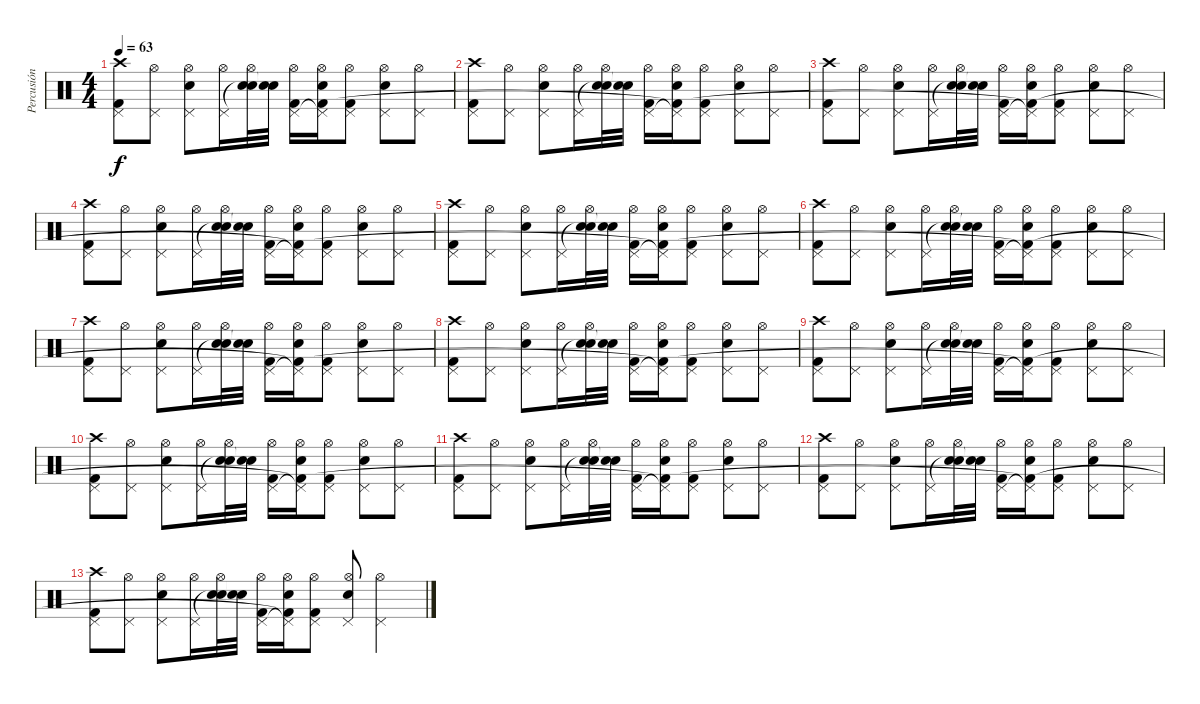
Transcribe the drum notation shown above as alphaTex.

\track ("Percusión" "Percusión") {instrument percussion}
\staff {score}
\articulation defaults
\ts (4 4)
\tempo 63
\clef neutral
\ks c
("Pedal Hi-Hat (hit)" "Crash high (hit)" "Kick (hit) 2").8{dy f} ("Pedal Hi-Hat (hit)" "Hi-Hat (open)").8 ("Pedal Hi-Hat (hit)" "Electric Snare (hit)" "Hi-Hat (open)").8 ("Pedal Hi-Hat (hit)" "Hi-Hat (open)").16 ("Snare (hit)"{t} "Electric Snare (hit)" "Hi-Hat (open)").32 ("Snare (hit)"{t} "Electric Snare (hit)").32 ("Pedal Hi-Hat (hit)" "Hi-Hat (open)" "Kick (hit) 2").16 ("Pedal Hi-Hat (hit)"{t} "Electric Snare (hit)" "Hi-Hat (open)" "Kick (hit) 2"{t}).16 ("Pedal Hi-Hat (hit)" "Hi-Hat (open)" "Kick (hit) 2").8 ("Pedal Hi-Hat (hit)" "Electric Snare (hit)" "Hi-Hat (open)").8 ("Pedal Hi-Hat (hit)" "Hi-Hat (open)").8 |
("Pedal Hi-Hat (hit)" "Crash high (hit)" "Kick (hit) 2").8 ("Pedal Hi-Hat (hit)" "Hi-Hat (open)").8 ("Pedal Hi-Hat (hit)" "Electric Snare (hit)" "Hi-Hat (open)").8 ("Pedal Hi-Hat (hit)" "Hi-Hat (open)").16 ("Snare (hit)"{t} "Electric Snare (hit)" "Hi-Hat (open)").32 ("Snare (hit)"{t} "Electric Snare (hit)").32 ("Pedal Hi-Hat (hit)" "Hi-Hat (open)" "Kick (hit) 2").16 ("Pedal Hi-Hat (hit)"{t} "Electric Snare (hit)" "Hi-Hat (open)" "Kick (hit) 2"{t}).16 ("Pedal Hi-Hat (hit)" "Hi-Hat (open)" "Kick (hit) 2").8 ("Pedal Hi-Hat (hit)" "Electric Snare (hit)" "Hi-Hat (open)").8 ("Pedal Hi-Hat (hit)" "Hi-Hat (open)").8 |
("Pedal Hi-Hat (hit)" "Crash high (hit)" "Kick (hit) 2").8 ("Pedal Hi-Hat (hit)" "Hi-Hat (open)").8 ("Pedal Hi-Hat (hit)" "Electric Snare (hit)" "Hi-Hat (open)").8 ("Pedal Hi-Hat (hit)" "Hi-Hat (open)").16 ("Snare (hit)"{t} "Electric Snare (hit)" "Hi-Hat (open)").32 ("Snare (hit)"{t} "Electric Snare (hit)").32 ("Pedal Hi-Hat (hit)" "Hi-Hat (open)" "Kick (hit) 2").16 ("Pedal Hi-Hat (hit)"{t} "Electric Snare (hit)" "Hi-Hat (open)" "Kick (hit) 2"{t}).16 ("Pedal Hi-Hat (hit)" "Hi-Hat (open)" "Kick (hit) 2").8 ("Pedal Hi-Hat (hit)" "Electric Snare (hit)" "Hi-Hat (open)").8 ("Pedal Hi-Hat (hit)" "Hi-Hat (open)").8 |
("Pedal Hi-Hat (hit)" "Crash high (hit)" "Kick (hit) 2").8 ("Pedal Hi-Hat (hit)" "Hi-Hat (open)").8 ("Pedal Hi-Hat (hit)" "Electric Snare (hit)" "Hi-Hat (open)").8 ("Pedal Hi-Hat (hit)" "Hi-Hat (open)").16 ("Snare (hit)"{t} "Electric Snare (hit)" "Hi-Hat (open)").32 ("Snare (hit)"{t} "Electric Snare (hit)").32 ("Pedal Hi-Hat (hit)" "Hi-Hat (open)" "Kick (hit) 2").16 ("Pedal Hi-Hat (hit)"{t} "Electric Snare (hit)" "Hi-Hat (open)" "Kick (hit) 2"{t}).16 ("Pedal Hi-Hat (hit)" "Hi-Hat (open)" "Kick (hit) 2").8 ("Pedal Hi-Hat (hit)" "Electric Snare (hit)" "Hi-Hat (open)").8 ("Pedal Hi-Hat (hit)" "Hi-Hat (open)").8 |
("Pedal Hi-Hat (hit)" "Crash high (hit)" "Kick (hit) 2").8 ("Pedal Hi-Hat (hit)" "Hi-Hat (open)").8 ("Pedal Hi-Hat (hit)" "Electric Snare (hit)" "Hi-Hat (open)").8 ("Pedal Hi-Hat (hit)" "Hi-Hat (open)").16 ("Snare (hit)"{t} "Electric Snare (hit)" "Hi-Hat (open)").32 ("Snare (hit)"{t} "Electric Snare (hit)").32 ("Pedal Hi-Hat (hit)" "Hi-Hat (open)" "Kick (hit) 2").16 ("Pedal Hi-Hat (hit)"{t} "Electric Snare (hit)" "Hi-Hat (open)" "Kick (hit) 2"{t}).16 ("Pedal Hi-Hat (hit)" "Hi-Hat (open)" "Kick (hit) 2").8 ("Pedal Hi-Hat (hit)" "Electric Snare (hit)" "Hi-Hat (open)").8 ("Pedal Hi-Hat (hit)" "Hi-Hat (open)").8 |
("Pedal Hi-Hat (hit)" "Crash high (hit)" "Kick (hit) 2").8 ("Pedal Hi-Hat (hit)" "Hi-Hat (open)").8 ("Pedal Hi-Hat (hit)" "Electric Snare (hit)" "Hi-Hat (open)").8 ("Pedal Hi-Hat (hit)" "Hi-Hat (open)").16 ("Snare (hit)"{t} "Electric Snare (hit)" "Hi-Hat (open)").32 ("Snare (hit)"{t} "Electric Snare (hit)").32 ("Pedal Hi-Hat (hit)" "Hi-Hat (open)" "Kick (hit) 2").16 ("Pedal Hi-Hat (hit)"{t} "Electric Snare (hit)" "Hi-Hat (open)" "Kick (hit) 2"{t}).16 ("Pedal Hi-Hat (hit)" "Hi-Hat (open)" "Kick (hit) 2").8 ("Pedal Hi-Hat (hit)" "Electric Snare (hit)" "Hi-Hat (open)").8 ("Pedal Hi-Hat (hit)" "Hi-Hat (open)").8 |
("Pedal Hi-Hat (hit)" "Crash high (hit)" "Kick (hit) 2").8 ("Pedal Hi-Hat (hit)" "Hi-Hat (open)").8 ("Pedal Hi-Hat (hit)" "Electric Snare (hit)" "Hi-Hat (open)").8 ("Pedal Hi-Hat (hit)" "Hi-Hat (open)").16 ("Snare (hit)"{t} "Electric Snare (hit)" "Hi-Hat (open)").32 ("Snare (hit)"{t} "Electric Snare (hit)").32 ("Pedal Hi-Hat (hit)" "Hi-Hat (open)" "Kick (hit) 2").16 ("Pedal Hi-Hat (hit)"{t} "Electric Snare (hit)" "Hi-Hat (open)" "Kick (hit) 2"{t}).16 ("Pedal Hi-Hat (hit)" "Hi-Hat (open)" "Kick (hit) 2").8 ("Pedal Hi-Hat (hit)" "Electric Snare (hit)" "Hi-Hat (open)").8 ("Pedal Hi-Hat (hit)" "Hi-Hat (open)").8 |
("Pedal Hi-Hat (hit)" "Crash high (hit)" "Kick (hit) 2").8 ("Pedal Hi-Hat (hit)" "Hi-Hat (open)").8 ("Pedal Hi-Hat (hit)" "Electric Snare (hit)" "Hi-Hat (open)").8 ("Pedal Hi-Hat (hit)" "Hi-Hat (open)").16 ("Snare (hit)"{t} "Electric Snare (hit)" "Hi-Hat (open)").32 ("Snare (hit)"{t} "Electric Snare (hit)").32 ("Pedal Hi-Hat (hit)" "Hi-Hat (open)" "Kick (hit) 2").16 ("Pedal Hi-Hat (hit)"{t} "Electric Snare (hit)" "Hi-Hat (open)" "Kick (hit) 2"{t}).16 ("Pedal Hi-Hat (hit)" "Hi-Hat (open)" "Kick (hit) 2").8 ("Pedal Hi-Hat (hit)" "Electric Snare (hit)" "Hi-Hat (open)").8 ("Pedal Hi-Hat (hit)" "Hi-Hat (open)").8 |
("Pedal Hi-Hat (hit)" "Crash high (hit)" "Kick (hit) 2").8 ("Pedal Hi-Hat (hit)" "Hi-Hat (open)").8 ("Pedal Hi-Hat (hit)" "Electric Snare (hit)" "Hi-Hat (open)").8 ("Pedal Hi-Hat (hit)" "Hi-Hat (open)").16 ("Snare (hit)"{t} "Electric Snare (hit)" "Hi-Hat (open)").32 ("Snare (hit)"{t} "Electric Snare (hit)").32 ("Pedal Hi-Hat (hit)" "Hi-Hat (open)" "Kick (hit) 2").16 ("Pedal Hi-Hat (hit)"{t} "Electric Snare (hit)" "Hi-Hat (open)" "Kick (hit) 2"{t}).16 ("Pedal Hi-Hat (hit)" "Hi-Hat (open)" "Kick (hit) 2").8 ("Pedal Hi-Hat (hit)" "Electric Snare (hit)" "Hi-Hat (open)").8 ("Pedal Hi-Hat (hit)" "Hi-Hat (open)").8 |
("Pedal Hi-Hat (hit)" "Crash high (hit)" "Kick (hit) 2").8 ("Pedal Hi-Hat (hit)" "Hi-Hat (open)").8 ("Pedal Hi-Hat (hit)" "Electric Snare (hit)" "Hi-Hat (open)").8 ("Pedal Hi-Hat (hit)" "Hi-Hat (open)").16 ("Snare (hit)"{t} "Electric Snare (hit)" "Hi-Hat (open)").32 ("Snare (hit)"{t} "Electric Snare (hit)").32 ("Pedal Hi-Hat (hit)" "Hi-Hat (open)" "Kick (hit) 2").16 ("Pedal Hi-Hat (hit)"{t} "Electric Snare (hit)" "Hi-Hat (open)" "Kick (hit) 2"{t}).16 ("Pedal Hi-Hat (hit)" "Hi-Hat (open)" "Kick (hit) 2").8 ("Pedal Hi-Hat (hit)" "Electric Snare (hit)" "Hi-Hat (open)").8 ("Pedal Hi-Hat (hit)" "Hi-Hat (open)").8 |
("Pedal Hi-Hat (hit)" "Crash high (hit)" "Kick (hit) 2").8 ("Pedal Hi-Hat (hit)" "Hi-Hat (open)").8 ("Pedal Hi-Hat (hit)" "Electric Snare (hit)" "Hi-Hat (open)").8 ("Pedal Hi-Hat (hit)" "Hi-Hat (open)").16 ("Snare (hit)"{t} "Electric Snare (hit)" "Hi-Hat (open)").32 ("Snare (hit)"{t} "Electric Snare (hit)").32 ("Pedal Hi-Hat (hit)" "Hi-Hat (open)" "Kick (hit) 2").16 ("Pedal Hi-Hat (hit)"{t} "Electric Snare (hit)" "Hi-Hat (open)" "Kick (hit) 2"{t}).16 ("Pedal Hi-Hat (hit)" "Hi-Hat (open)" "Kick (hit) 2").8 ("Pedal Hi-Hat (hit)" "Electric Snare (hit)" "Hi-Hat (open)").8 ("Pedal Hi-Hat (hit)" "Hi-Hat (open)").8 |
("Pedal Hi-Hat (hit)" "Crash high (hit)" "Kick (hit) 2").8 ("Pedal Hi-Hat (hit)" "Hi-Hat (open)").8 ("Pedal Hi-Hat (hit)" "Electric Snare (hit)" "Hi-Hat (open)").8 ("Pedal Hi-Hat (hit)" "Hi-Hat (open)").16 ("Snare (hit)"{t} "Electric Snare (hit)" "Hi-Hat (open)").32 ("Snare (hit)"{t} "Electric Snare (hit)").32 ("Pedal Hi-Hat (hit)" "Hi-Hat (open)" "Kick (hit) 2").16 ("Pedal Hi-Hat (hit)"{t} "Electric Snare (hit)" "Hi-Hat (open)" "Kick (hit) 2"{t}).16 ("Pedal Hi-Hat (hit)" "Hi-Hat (open)" "Kick (hit) 2").8 ("Pedal Hi-Hat (hit)" "Electric Snare (hit)" "Hi-Hat (open)").8 ("Pedal Hi-Hat (hit)" "Hi-Hat (open)").8 |
("Pedal Hi-Hat (hit)" "Crash high (hit)" "Kick (hit) 2").8 ("Pedal Hi-Hat (hit)" "Hi-Hat (open)").8 ("Pedal Hi-Hat (hit)" "Electric Snare (hit)" "Hi-Hat (open)").8 ("Pedal Hi-Hat (hit)" "Hi-Hat (open)").16 ("Snare (hit)"{t} "Electric Snare (hit)" "Hi-Hat (open)").32 ("Snare (hit)"{t} "Electric Snare (hit)").32 ("Pedal Hi-Hat (hit)" "Hi-Hat (open)" "Kick (hit) 2").16 ("Pedal Hi-Hat (hit)"{t} "Electric Snare (hit)" "Hi-Hat (open)" "Kick (hit) 2"{t}).16 ("Pedal Hi-Hat (hit)" "Hi-Hat (open)" "Kick (hit) 2").8 ("Pedal Hi-Hat (hit)" "Electric Snare (hit)" "Hi-Hat (open)").8 ("Pedal Hi-Hat (hit)" "Hi-Hat (open)").2
